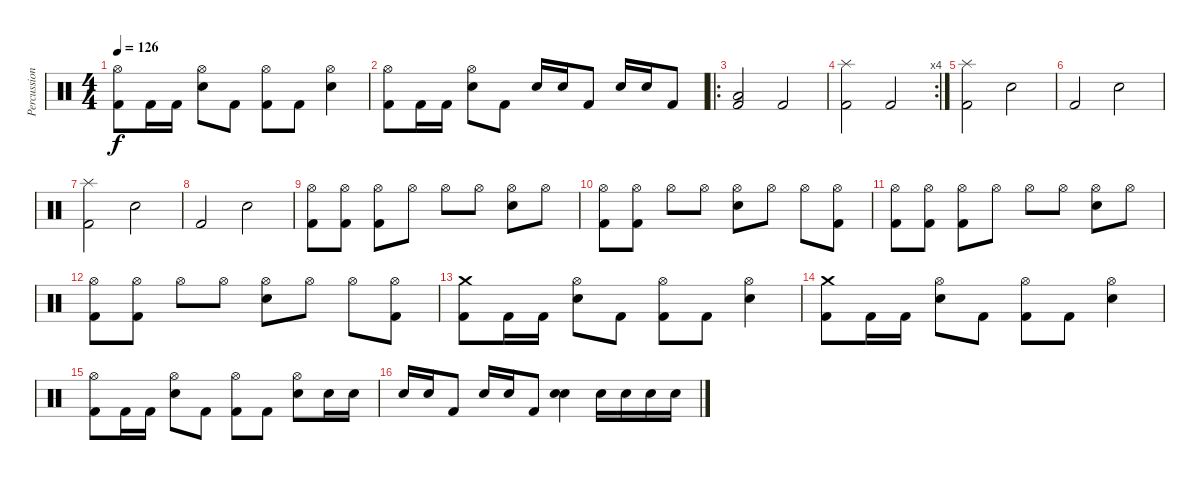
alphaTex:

\track ("Percussion" "Percussion") {instrument percussion}
\staff {score}
\articulation defaults
\ts (4 4)
\tempo 126
\clef neutral
\ks c
("Hi-Hat (open)" "Kick (hit) 2").8{dy f} "Kick (hit) 2".16 "Kick (hit) 2".16 ("Hi-Hat (open)" "Electric Snare (hit)").8 "Kick (hit) 2".8 ("Hi-Hat (open)" "Kick (hit) 2").8 "Kick (hit) 2".8 ("Hi-Hat (open)" "Electric Snare (hit)").4 |
("Hi-Hat (open)" "Kick (hit) 2").8 "Kick (hit) 2".16 "Kick (hit) 2".16 ("Hi-Hat (open)" "Electric Snare (hit)").8 "Kick (hit) 2".8 "Electric Snare (hit)".16 "Electric Snare (hit)".16 "Kick (hit) 2".8 "Electric Snare (hit)".16 "Electric Snare (hit)".16 "Kick (hit) 2".8 |
\ro
("Low Floor Tom (hit)" "Kick (hit) 2").2 "Kick (hit) 2".2 |
\rc 4
("Splash (hit)" "Kick (hit) 2").2 "Kick (hit) 2".2 |
("Splash (hit)" "Kick (hit) 2").2 "Electric Snare (hit)".2 |
"Kick (hit) 2".2 "Electric Snare (hit)".2 |
("Splash (hit)" "Kick (hit) 2").2 "Electric Snare (hit)".2 |
"Kick (hit) 2".2 "Electric Snare (hit)".2 |
("Hi-Hat (open)" "Kick (hit) 2").8 ("Hi-Hat (open)" "Kick (hit) 2").8 ("Hi-Hat (open)" "Kick (hit) 2").8 "Hi-Hat (open)".8 "Hi-Hat (open)".8 "Hi-Hat (open)".8 ("Hi-Hat (open)" "Electric Snare (hit)").8 "Hi-Hat (open)".8 |
("Hi-Hat (open)" "Kick (hit) 2").8 ("Hi-Hat (open)" "Kick (hit) 2").8 "Hi-Hat (open)".8 "Hi-Hat (open)".8 ("Hi-Hat (open)" "Electric Snare (hit)").8 "Hi-Hat (open)".8 "Hi-Hat (open)".8 ("Hi-Hat (open)" "Kick (hit) 2").8 |
("Hi-Hat (open)" "Kick (hit) 2").8 ("Hi-Hat (open)" "Kick (hit) 2").8 ("Hi-Hat (open)" "Kick (hit) 2").8 "Hi-Hat (open)".8 "Hi-Hat (open)".8 "Hi-Hat (open)".8 ("Hi-Hat (open)" "Electric Snare (hit)").8 "Hi-Hat (open)".8 |
("Hi-Hat (open)" "Kick (hit) 2").8 ("Hi-Hat (open)" "Kick (hit) 2").8 "Hi-Hat (open)".8 "Hi-Hat (open)".8 ("Hi-Hat (open)" "Electric Snare (hit)").8 "Hi-Hat (open)".8 "Hi-Hat (open)".8 ("Hi-Hat (open)" "Kick (hit) 2").8 |
("Crash medium (hit)" "Kick (hit) 2").8 "Kick (hit) 2".16 "Kick (hit) 2".16 ("Hi-Hat (open)" "Electric Snare (hit)").8 "Kick (hit) 2".8 ("Hi-Hat (open)" "Kick (hit) 2").8 "Kick (hit) 2".8 ("Hi-Hat (open)" "Electric Snare (hit)").4 |
("Crash medium (hit)" "Kick (hit) 2").8 "Kick (hit) 2".16 "Kick (hit) 2".16 ("Hi-Hat (open)" "Electric Snare (hit)").8 "Kick (hit) 2".8 ("Hi-Hat (open)" "Kick (hit) 2").8 "Kick (hit) 2".8 ("Hi-Hat (open)" "Electric Snare (hit)").4 |
("Hi-Hat (open)" "Kick (hit) 2").8 "Kick (hit) 2".16 "Kick (hit) 2".16 ("Hi-Hat (open)" "Electric Snare (hit)").8 "Kick (hit) 2".8 ("Hi-Hat (open)" "Kick (hit) 2").8 "Kick (hit) 2".8 ("Hi-Hat (open)" "Electric Snare (hit)").8 "Electric Snare (hit)".16 "Electric Snare (hit)".16 |
"Electric Snare (hit)".16 "Electric Snare (hit)".16 "Kick (hit) 2".8 "Electric Snare (hit)".16 "Electric Snare (hit)".16 "Kick (hit) 2".8 ("Electric Snare (hit)" "Electric Snare (hit)").4 "Electric Snare (hit)".16 "Electric Snare (hit)".16 "Electric Snare (hit)".16 "Electric Snare (hit)".16
